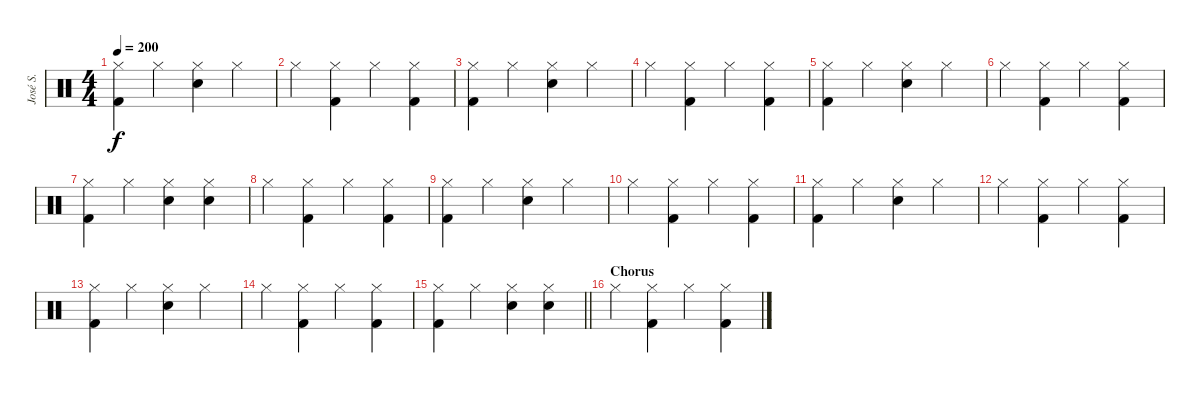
\track ("José S." "José S.") {instrument percussion}
\staff {score}
\articulation defaults
\ts (4 4)
\tempo 200
\clef neutral
\ks c
("Hi-Hat (closed)" "Kick (hit) 2").4{dy f} "Hi-Hat (closed)".4 ("Hi-Hat (closed)" "Snare (hit) 2").4 "Hi-Hat (closed)".4 |
"Hi-Hat (closed)".4 ("Hi-Hat (closed)" "Kick (hit) 2").4 "Hi-Hat (closed)".4 ("Hi-Hat (closed)" "Kick (hit) 2").4 |
("Hi-Hat (closed)" "Kick (hit) 2").4 "Hi-Hat (closed)".4 ("Hi-Hat (closed)" "Snare (hit) 2").4 "Hi-Hat (closed)".4 |
"Hi-Hat (closed)".4 ("Hi-Hat (closed)" "Kick (hit) 2").4 "Hi-Hat (closed)".4 ("Hi-Hat (closed)" "Kick (hit) 2").4 |
("Hi-Hat (closed)" "Kick (hit) 2").4 "Hi-Hat (closed)".4 ("Hi-Hat (closed)" "Snare (hit) 2").4 "Hi-Hat (closed)".4 |
"Hi-Hat (closed)".4 ("Hi-Hat (closed)" "Kick (hit) 2").4 "Hi-Hat (closed)".4 ("Hi-Hat (closed)" "Kick (hit) 2").4 |
("Hi-Hat (closed)" "Kick (hit) 2").4 "Hi-Hat (closed)".4 ("Hi-Hat (closed)" "Snare (hit) 2").4 ("Hi-Hat (closed)" "Snare (hit) 2").4 |
"Hi-Hat (closed)".4 ("Hi-Hat (closed)" "Kick (hit) 2").4 "Hi-Hat (closed)".4 ("Hi-Hat (closed)" "Kick (hit) 2").4 |
("Hi-Hat (closed)" "Kick (hit) 2").4 "Hi-Hat (closed)".4 ("Hi-Hat (closed)" "Snare (hit) 2").4 "Hi-Hat (closed)".4 |
"Hi-Hat (closed)".4 ("Hi-Hat (closed)" "Kick (hit) 2").4 "Hi-Hat (closed)".4 ("Hi-Hat (closed)" "Kick (hit) 2").4 |
("Hi-Hat (closed)" "Kick (hit) 2").4 "Hi-Hat (closed)".4 ("Hi-Hat (closed)" "Snare (hit) 2").4 "Hi-Hat (closed)".4 |
"Hi-Hat (closed)".4 ("Hi-Hat (closed)" "Kick (hit) 2").4 "Hi-Hat (closed)".4 ("Hi-Hat (closed)" "Kick (hit) 2").4 |
("Hi-Hat (closed)" "Kick (hit) 2").4 "Hi-Hat (closed)".4 ("Hi-Hat (closed)" "Snare (hit) 2").4 "Hi-Hat (closed)".4 |
"Hi-Hat (closed)".4 ("Hi-Hat (closed)" "Kick (hit) 2").4 "Hi-Hat (closed)".4 ("Hi-Hat (closed)" "Kick (hit) 2").4 |
\barLineRight lightlight
("Hi-Hat (closed)" "Kick (hit) 2").4 "Hi-Hat (closed)".4 ("Hi-Hat (closed)" "Snare (hit) 2").4 ("Hi-Hat (closed)" "Snare (hit) 2").4 |
\section ("" "Chorus")
"Hi-Hat (closed)".4 ("Hi-Hat (closed)" "Kick (hit) 2").4 "Hi-Hat (closed)".4 ("Hi-Hat (closed)" "Kick (hit) 2").4
